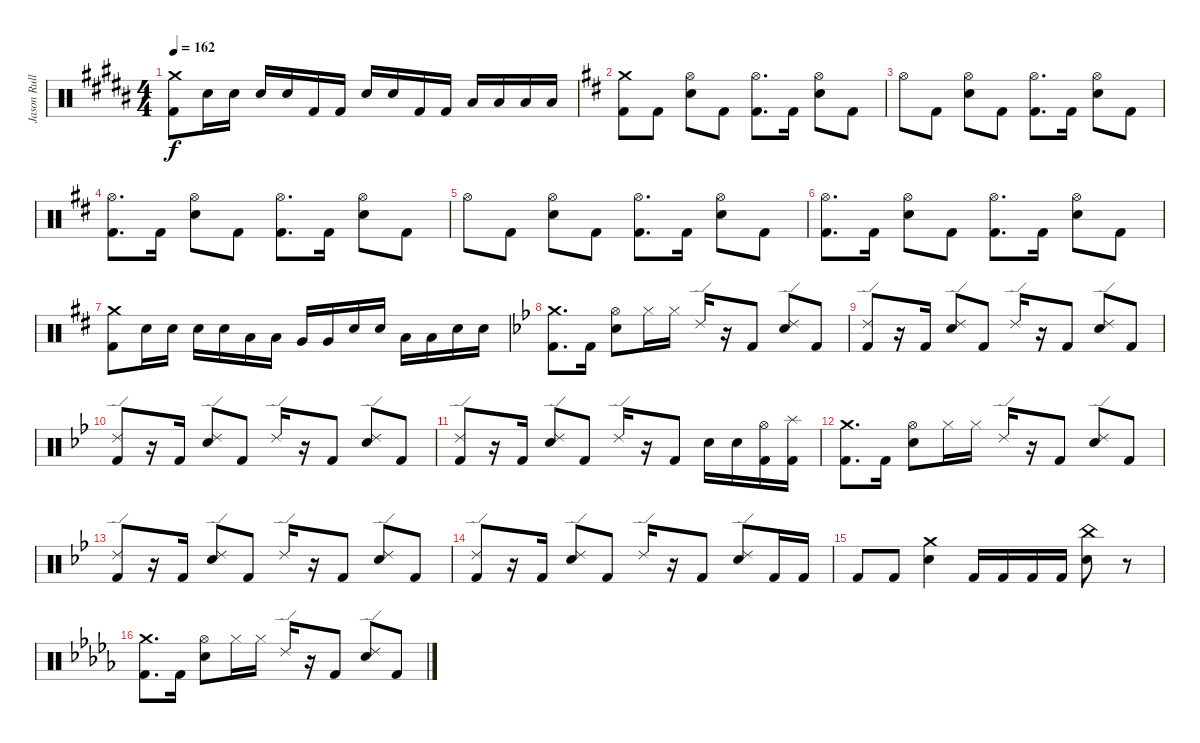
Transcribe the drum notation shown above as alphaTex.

\track ("Jason Rullo" "Jason Rull") {instrument percussion}
\staff {score}
\articulation defaults
\ts (4 4)
\tempo 162
\clef neutral
\ks g#minor
("Crash medium (hit)" "Kick (hit) 2").8{dy f} "Electric Snare (hit)".16 "Electric Snare (hit)".16 "Electric Snare (hit)".16 "Electric Snare (hit)".16 "Kick (hit) 2".16 "Kick (hit) 2".16 "Electric Snare (hit)".16 "Electric Snare (hit)".16 "Kick (hit) 2".16 "Kick (hit) 2".16 "Low Tom (hit)".16 "Low Tom (hit)".16 "Low Floor Tom (hit)".16 "Low Floor Tom (hit)".16 |
\ks bminor
("Crash medium (hit)" "Kick (hit) 2").8 "Kick (hit) 2".8 ("Hi-Hat (open)" "Electric Snare (hit)").8 "Kick (hit) 2".8 ("Hi-Hat (open)" "Kick (hit) 2").8{d} "Kick (hit) 2".16 ("Hi-Hat (open)" "Electric Snare (hit)").8 "Kick (hit) 2".8 |
"Hi-Hat (open)".8 "Kick (hit) 2".8 ("Hi-Hat (open)" "Electric Snare (hit)").8 "Kick (hit) 2".8 ("Hi-Hat (open)" "Kick (hit) 2").8{d} "Kick (hit) 2".16 ("Hi-Hat (open)" "Electric Snare (hit)").8 "Kick (hit) 2".8 |
("Hi-Hat (open)" "Kick (hit) 2").8{d} "Kick (hit) 2".16 ("Hi-Hat (open)" "Electric Snare (hit)").8 "Kick (hit) 2".8 ("Hi-Hat (open)" "Kick (hit) 2").8{d} "Kick (hit) 2".16 ("Hi-Hat (open)" "Electric Snare (hit)").8 "Kick (hit) 2".8 |
"Hi-Hat (open)".8 "Kick (hit) 2".8 ("Hi-Hat (open)" "Electric Snare (hit)").8 "Kick (hit) 2".8 ("Hi-Hat (open)" "Kick (hit) 2").8{d} "Kick (hit) 2".16 ("Hi-Hat (open)" "Electric Snare (hit)").8 "Kick (hit) 2".8 |
("Hi-Hat (open)" "Kick (hit) 2").8{d} "Kick (hit) 2".16 ("Hi-Hat (open)" "Electric Snare (hit)").8 "Kick (hit) 2".8 ("Hi-Hat (open)" "Kick (hit) 2").8{d} "Kick (hit) 2".16 ("Hi-Hat (open)" "Electric Snare (hit)").8 "Kick (hit) 2".8 |
("Crash medium (hit)" "Kick (hit) 2").8 "Electric Snare (hit)".16 "Electric Snare (hit)".16 "Electric Snare (hit)".16 "Electric Snare (hit)".16 "Low Tom (hit)".16 "Low Tom (hit)".16 "Very Low Tom (hit)".16 "Very Low Tom (hit)".16 "Electric Snare (hit)".16 "Electric Snare (hit)".16 "Low Floor Tom (hit)".16 "Low Floor Tom (hit)".16 "Electric Snare (hit)".16 "Electric Snare (hit)".16 |
\ks bb
("Crash medium (hit)" "Kick (hit) 2").8{d} "Kick (hit) 2".16 ("Hi-Hat (open)" "Electric Snare (hit)").8 "Hi-Hat (closed)".16 "Hi-Hat (closed)".16 "Ride (edge) 2".16 r.16 "Kick (hit) 2".8 ("Ride (edge) 2" "Electric Snare (hit)").8 "Kick (hit) 2".8 |
("Ride (edge) 2" "Kick (hit) 2").8 r.16 "Kick (hit) 2".16 ("Electric Snare (hit)" "Ride (edge) 2").8 "Kick (hit) 2".8 "Ride (edge) 2".16 r.16 "Kick (hit) 2".8 ("Electric Snare (hit)" "Ride (edge) 2").8 "Kick (hit) 2".8 |
("Ride (edge) 2" "Kick (hit) 2").8 r.16 "Kick (hit) 2".16 ("Electric Snare (hit)" "Ride (edge) 2").8 "Kick (hit) 2".8 "Ride (edge) 2".16 r.16 "Kick (hit) 2".8 ("Electric Snare (hit)" "Ride (edge) 2").8 "Kick (hit) 2".8 |
("Ride (edge) 2" "Kick (hit) 2").8 r.16 "Kick (hit) 2".16 ("Electric Snare (hit)" "Ride (edge) 2").8 "Kick (hit) 2".8 "Ride (edge) 2".16 r.16 "Kick (hit) 2".8 "Electric Snare (hit)".16 "Electric Snare (hit)".16 ("Kick (hit) 2" "Hi-Hat (open)").16 ("Kick (hit) 2" "Splash (hit)").16 |
("Crash medium (hit)" "Kick (hit) 2").8{d} "Kick (hit) 2".16 ("Hi-Hat (open)" "Electric Snare (hit)").8 "Hi-Hat (closed)".16 "Hi-Hat (closed)".16 "Ride (edge) 2".16 r.16 "Kick (hit) 2".8 ("Ride (edge) 2" "Electric Snare (hit)").8 "Kick (hit) 2".8 |
("Ride (edge) 2" "Kick (hit) 2").8 r.16 "Kick (hit) 2".16 ("Electric Snare (hit)" "Ride (edge) 2").8 "Kick (hit) 2".8 "Ride (edge) 2".16 r.16 "Kick (hit) 2".8 ("Electric Snare (hit)" "Ride (edge) 2").8 "Kick (hit) 2".8 |
("Ride (edge) 2" "Kick (hit) 2").8 r.16 "Kick (hit) 2".16 ("Electric Snare (hit)" "Ride (edge) 2").8 "Kick (hit) 2".8 "Ride (edge) 2".16 r.16 "Kick (hit) 2".8 ("Electric Snare (hit)" "Ride (edge) 2").8 "Kick (hit) 2".16 "Kick (hit) 2".16 |
"Kick (hit) 2".8 "Kick (hit) 2".8 ("Crash medium (hit)" "Electric Snare (hit)").4 "Kick (hit) 2".16 "Kick (hit) 2".16 "Kick (hit) 2".16 "Kick (hit) 2".16 ("China (hit)" "Electric Snare (hit)").8 r.8 |
\ks bbminor
("Crash medium (hit)" "Kick (hit) 2").8{d} "Kick (hit) 2".16 ("Hi-Hat (open)" "Electric Snare (hit)").8 "Hi-Hat (closed)".16 "Hi-Hat (closed)".16 "Ride (edge) 2".16 r.16 "Kick (hit) 2".8 ("Ride (edge) 2" "Electric Snare (hit)").8 "Kick (hit) 2".8
